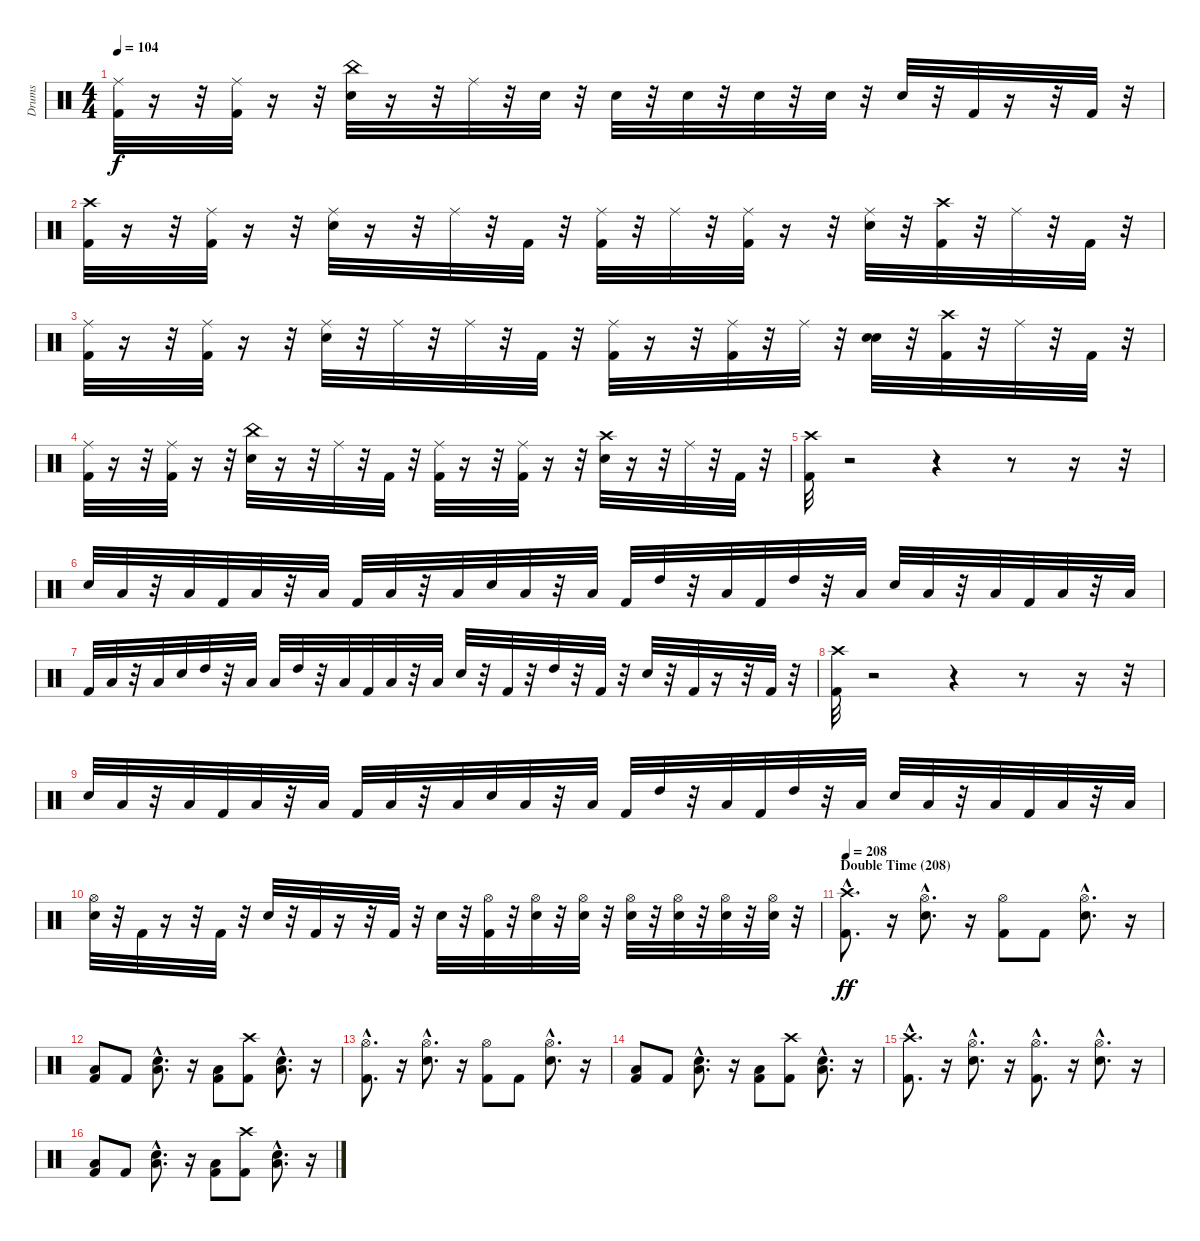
\track ("Drums" "Drums") {instrument percussion}
\staff {score}
\articulation defaults
\ts (4 4)
\tempo 104
\clef neutral
\ks c
("Ride (middle)" "Kick (hit) 2").32{dy f} r.16 r.32 ("Kick (hit) 2" "Ride (middle)").32 r.16 r.32 ("Snare (hit) 2" "China (hit)").32 r.16 r.32 "Ride (middle)".32 r.32 "Snare (hit) 2".32 r.32 "Snare (hit) 2".32 r.32 "Snare (hit) 2".32 r.32 "Snare (hit) 2".32 r.32 "Snare (hit) 2".32 r.32 "Snare (hit) 2".32 r.32 "Kick (hit) 2".32 r.16 r.32 "Kick (hit) 2".32 r.32 |
("Crash high (hit)" "Kick (hit) 2").32 r.16 r.32 ("Kick (hit) 2" "Ride (middle)").32 r.16 r.32 ("Ride (middle)" "Snare (hit) 2").32 r.16 r.32 "Ride (middle)".32 r.32 "Kick (hit) 2".32 r.32 ("Kick (hit) 2" "Ride (middle)").32 r.32 "Ride (middle)".32 r.32 ("Ride (middle)" "Kick (hit) 2").32 r.16 r.32 ("Snare (hit) 2" "Ride (middle)").32 r.32 ("Crash high (hit)" "Kick (hit) 2").32 r.32 "Ride (middle)".32 r.32 "Kick (hit) 2".32 r.32 |
("Kick (hit) 2" "Ride (middle)").32 r.16 r.32 ("Kick (hit) 2" "Ride (middle)").32 r.16 r.32 ("Snare (hit) 2" "Ride (middle)").32 r.32 "Ride (middle)".32 r.32 "Ride (middle)".32 r.32 "Kick (hit) 2".32 r.32 ("Ride (middle)" "Kick (hit) 2").32 r.16 r.32 ("Kick (hit) 2" "Ride (middle)").32 r.32 "Ride (middle)".32 r.32 ("Electric Snare (hit)" "Snare (hit) 2").32 r.32 ("Kick (hit) 2" "Crash high (hit)").32 r.32 "Ride (middle)".32 r.32 "Kick (hit) 2".32 r.32 |
("Kick (hit) 2" "Ride (middle)").32 r.16 r.32 ("Kick (hit) 2" "Ride (middle)").32 r.16 r.32 ("China (hit)" "Snare (hit) 2").32 r.16 r.32 "Ride (middle)".32 r.32 "Kick (hit) 2".32 r.32 ("Kick (hit) 2" "Ride (middle)").32 r.16 r.32 ("Ride (middle)" "Kick (hit) 2").32 r.16 r.32 ("Snare (hit) 2" "Crash high (hit)").32 r.16 r.32 "Ride (middle)".32 r.32 "Kick (hit) 2".32 r.32 |
("Crash high (hit)" "Kick (hit) 2").32 r.2 r.4 r.8 r.16 r.32 |
"Snare (hit) 2".32 "Low Tom (hit)".32 r.32 "Low Floor Tom (hit)".32 "Kick (hit) 2".32 "Low Tom (hit)".32 r.32 "Low Floor Tom (hit)".32 "Kick (hit) 2".32 "Low Tom (hit)".32 r.32 "Low Floor Tom (hit)".32 "Snare (hit) 2".32 "Low Tom (hit)".32 r.32 "Low Floor Tom (hit)".32 "Kick (hit) 2".32 "High Tom (hit)".32 r.32 "Low Tom (hit)".32 "Kick (hit) 2".32 "High Tom (hit)".32 r.32 "Low Tom (hit)".32 "Snare (hit) 2".32 "Low Tom (hit)".32 r.32 "Low Floor Tom (hit)".32 "Kick (hit) 2".32 "Low Tom (hit)".32 r.32 "Low Floor Tom (hit)".32 |
"Kick (hit) 2".32 "Low Tom (hit)".32 r.32 "Low Floor Tom (hit)".32 "Snare (hit) 2".32 "High Tom (hit)".32 r.32 "Low Tom (hit)".32 "Low Floor Tom (hit)".32 "High Tom (hit)".32 r.32 "Low Tom (hit)".32 "Kick (hit) 2".32 "Low Tom (hit)".32 r.32 "Low Floor Tom (hit)".32 "Snare (hit) 2".32 r.32 "Kick (hit) 2".32 r.32 "High Tom (hit)".32 r.32 "Kick (hit) 2".32 r.32 "Snare (hit) 2".32 r.32 "Kick (hit) 2".32 r.16 r.32 "Kick (hit) 2".32 r.32 |
("Crash high (hit)" "Kick (hit) 2").32 r.2 r.4 r.8 r.16 r.32 |
"Snare (hit) 2".32 "Low Tom (hit)".32 r.32 "Low Floor Tom (hit)".32 "Kick (hit) 2".32 "Low Tom (hit)".32 r.32 "Low Floor Tom (hit)".32 "Kick (hit) 2".32 "Low Tom (hit)".32 r.32 "Low Floor Tom (hit)".32 "Snare (hit) 2".32 "Low Tom (hit)".32 r.32 "Low Floor Tom (hit)".32 "Kick (hit) 2".32 "High Tom (hit)".32 r.32 "Low Tom (hit)".32 "Kick (hit) 2".32 "High Tom (hit)".32 r.32 "Low Tom (hit)".32 "Snare (hit) 2".32 "Low Tom (hit)".32 r.32 "Low Floor Tom (hit)".32 "Kick (hit) 2".32 "Low Tom (hit)".32 r.32 "Low Floor Tom (hit)".32 |
("Snare (hit) 2" "Hi-Hat (open)").32 r.32 "Kick (hit) 2".32 r.16 r.32 "Kick (hit) 2".32 r.32 "Snare (hit) 2".32 r.32 "Kick (hit) 2".32 r.16 r.32 "Kick (hit) 2".32 r.32 "Snare (hit) 2".32 r.32 ("Kick (hit) 2" "Hi-Hat (open)").32 r.32 ("Snare (hit) 2" "Hi-Hat (open)").32 r.32 ("Snare (hit) 2" "Hi-Hat (open)").32 r.32 ("Snare (hit) 2" "Hi-Hat (open)").32 r.32 ("Snare (hit) 2" "Hi-Hat (open)").32 r.32 ("Snare (hit) 2" "Hi-Hat (open)").32 r.32 ("Snare (hit) 2" "Hi-Hat (open)").32 r.32 |
\section ("" "Double Time (208)")
\tempo 208
("Kick (hit) 2"{hac} "Crash high (hit)"{hac}).8{d dy ff} r.16 ("Snare (hit) 2"{hac} "Hi-Hat (open)"{hac}).8{d} r.16 ("Kick (hit) 2" "Hi-Hat (open)").8 "Kick (hit) 2".8 ("Snare (hit) 2"{hac} "Hi-Hat (open)"{hac}).8{d} r.16 |
("Kick (hit) 2" "Low Tom (hit)").8 "Kick (hit) 2".8 ("Snare (hit) 2"{hac} "Low Tom (hit)"{hac}).8{d} r.16 ("Kick (hit) 2" "Low Tom (hit)").8 ("Kick (hit) 2" "Crash high (hit)").8 ("Snare (hit) 2"{hac} "Low Tom (hit)"{hac}).8{d} r.16 |
("Kick (hit) 2"{hac} "Hi-Hat (open)"{hac}).8{d} r.16 ("Snare (hit) 2"{hac} "Hi-Hat (open)"{hac}).8{d} r.16 ("Kick (hit) 2" "Hi-Hat (open)").8 "Kick (hit) 2".8 ("Snare (hit) 2"{hac} "Hi-Hat (open)"{hac}).8{d} r.16 |
("Kick (hit) 2" "Low Tom (hit)").8 "Kick (hit) 2".8 ("Snare (hit) 2"{hac} "Low Tom (hit)"{hac}).8{d} r.16 ("Kick (hit) 2" "Low Tom (hit)").8 ("Kick (hit) 2" "Crash high (hit)").8 ("Snare (hit) 2"{hac} "Low Tom (hit)"{hac}).8{d} r.16 |
("Kick (hit) 2"{hac} "Crash high (hit)"{hac}).8{d} r.16 ("Snare (hit) 2"{hac} "Hi-Hat (open)"{hac}).8{d} r.16 ("Hi-Hat (open)"{hac} "Kick (hit) 2"{hac}).8{d} r.16 ("Hi-Hat (open)"{hac} "Snare (hit) 2"{hac}).8{d} r.16 |
("Low Tom (hit)" "Kick (hit) 2").8 "Kick (hit) 2".8 ("Snare (hit) 2"{hac} "Low Tom (hit)"{hac}).8{d} r.16 ("Kick (hit) 2" "Low Tom (hit)").8 ("Kick (hit) 2" "Crash high (hit)").8 ("Snare (hit) 2"{hac} "Low Tom (hit)"{hac}).8{d} r.16
